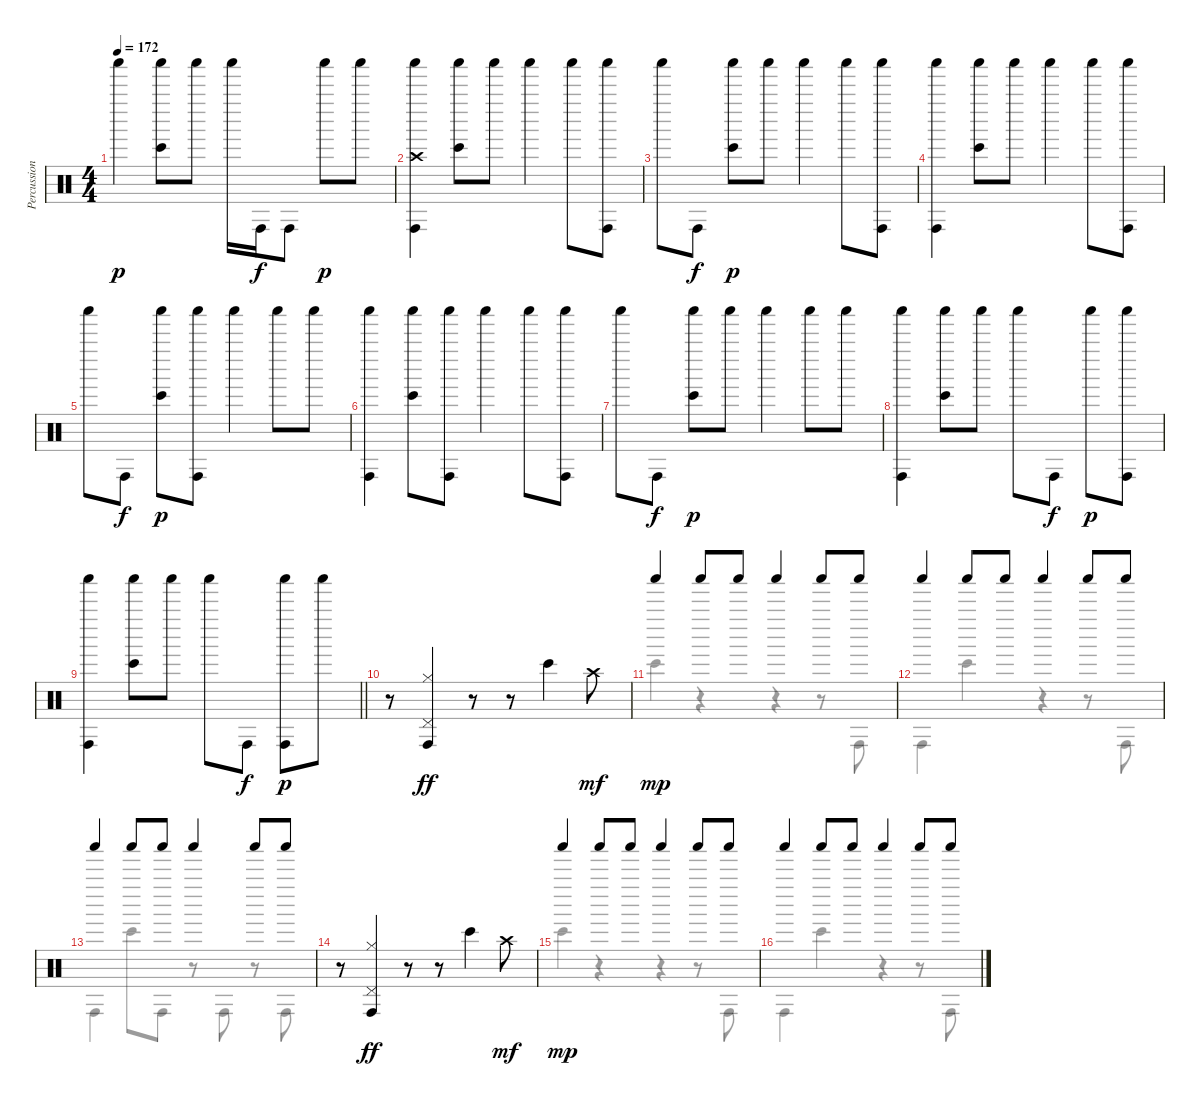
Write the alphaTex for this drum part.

\track ("Percussion" "Percussion") {instrument percussion}
\staff {score}
\articulation defaults
\voice
\ts (4 4)
\tempo 172
\clef neutral
\ks c "Shaker (hit)".4{dy p}
("Shaker (hit)" "Bongo High (hit)").8 "Shaker (hit)".8 "Shaker (hit)".16 "Conga high (hit)".16{dy f} "Conga high (hit)".8 "Shaker (hit)".8{dy p} "Shaker (hit)".8 |
("Shaker (hit)" "Crash high (hit)" "Conga high (hit)").4 ("Shaker (hit)" "Bongo High (hit)").8 "Shaker (hit)".8 "Shaker (hit)".4 "Shaker (hit)".8 ("Shaker (hit)" "Conga high (hit)").8 |
"Shaker (hit)".8 "Conga high (hit)".8{dy f} ("Shaker (hit)" "Bongo High (hit)").8{dy p} "Shaker (hit)".8 "Shaker (hit)".4 "Shaker (hit)".8 ("Shaker (hit)" "Conga high (hit)").8 |
("Shaker (hit)" "Conga high (hit)").4 ("Shaker (hit)" "Bongo High (hit)").8 "Shaker (hit)".8 "Shaker (hit)".4 "Shaker (hit)".8 ("Shaker (hit)" "Conga high (hit)").8 |
"Shaker (hit)".8 "Conga high (hit)".8{dy f} ("Shaker (hit)" "Bongo High (hit)").8{dy p} ("Shaker (hit)" "Conga high (hit)").8 "Shaker (hit)".4 "Shaker (hit)".8 "Shaker (hit)".8 |
("Shaker (hit)" "Conga high (hit)").4 ("Shaker (hit)" "Bongo High (hit)").8 ("Shaker (hit)" "Conga high (hit)").8 "Shaker (hit)".4 "Shaker (hit)".8 ("Shaker (hit)" "Conga high (hit)").8 |
"Shaker (hit)".8 "Conga high (hit)".8{dy f} ("Shaker (hit)" "Bongo High (hit)").8{dy p} "Shaker (hit)".8 "Shaker (hit)".4 "Shaker (hit)".8 "Shaker (hit)".8 |
("Shaker (hit)" "Conga high (hit)").4 ("Shaker (hit)" "Bongo High (hit)").8 "Shaker (hit)".8 "Shaker (hit)".8 "Conga high (hit)".8{dy f} "Shaker (hit)".8{dy p} ("Shaker (hit)" "Conga high (hit)").8 |
\barLineRight lightlight
("Shaker (hit)" "Conga high (hit)").4 ("Shaker (hit)" "Bongo High (hit)").8 "Shaker (hit)".8 "Shaker (hit)".8 "Conga high (hit)".8{dy f} ("Shaker (hit)" "Conga high (hit)").8{dy p} "Shaker (hit)".8 |
r.8 ("Conga high (hit)" "Pedal Hi-Hat (hit)" "Hi-Hat (closed)").4{dy ff} r.8 r.8 "Bongo High (hit)".4 "Crash high (hit)".8{dy mf} |
"Shaker (hit)".4{dy mp} "Shaker (hit)".8 "Shaker (hit)".8 "Shaker (hit)".4 "Shaker (hit)".8 "Shaker (hit)".8 |
"Shaker (hit)".4 "Shaker (hit)".8 "Shaker (hit)".8 "Shaker (hit)".4 "Shaker (hit)".8 "Shaker (hit)".8 |
"Shaker (hit)".4 "Shaker (hit)".8 "Shaker (hit)".8 "Shaker (hit)".4 "Shaker (hit)".8 "Shaker (hit)".8 |
r.8 ("Conga high (hit)" "Pedal Hi-Hat (hit)" "Hi-Hat (closed)").4{dy ff} r.8 r.8 "Bongo High (hit)".4 "Crash high (hit)".8{dy mf} |
"Shaker (hit)".4{dy mp} "Shaker (hit)".8 "Shaker (hit)".8 "Shaker (hit)".4 "Shaker (hit)".8 "Shaker (hit)".8 |
"Shaker (hit)".4 "Shaker (hit)".8 "Shaker (hit)".8 "Shaker (hit)".4 "Shaker (hit)".8 "Shaker (hit)".8
\voice
\clef neutral
\ottava regular
\simile none
\ks c
|
|
|
|
|
|
|
|
\barLineRight lightlight
|
|
"Bongo High (hit)".4 r.4 r.4 r.8 "Conga high (hit)".8 |
"Conga high (hit)".4 "Bongo High (hit)".4 r.4 r.8 "Conga high (hit)".8 |
"Conga high (hit)".4 "Bongo High (hit)".8 "Conga high (hit)".8 r.8 "Conga high (hit)".8 r.8 "Conga high (hit)".8 |
|
"Bongo High (hit)".4 r.4 r.4 r.8 "Conga high (hit)".8 |
"Conga high (hit)".4 "Bongo High (hit)".4 r.4 r.8 "Conga high (hit)".8
